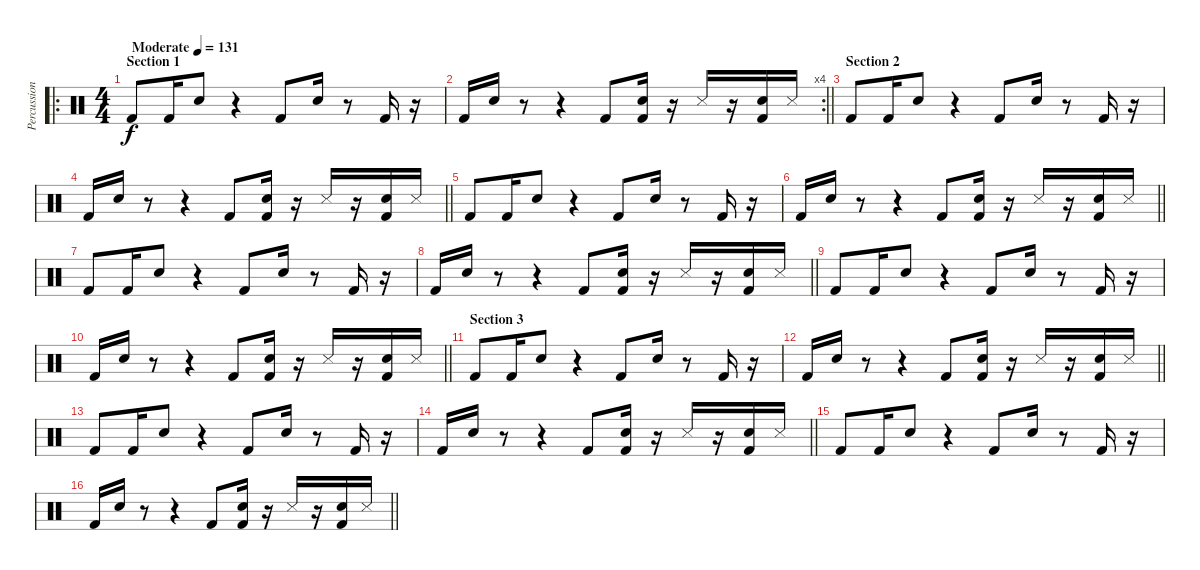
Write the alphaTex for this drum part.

\track ("Percussion" "Percussion") {instrument percussion}
\staff {score}
\articulation defaults
\ro
\ts (4 4)
\section ("" "Section 1")
\tempo (131 "Moderate")
\clef neutral
\ks c "Kick (hit) 2".8{dy f} "Kick (hit) 2".16 "Snare (hit) 2".8
r.4 "Kick (hit) 2".8 "Snare (hit) 2".16 r.8 "Kick (hit) 2".16 r.16 |
\rc 4
\barLineRight lightlight "Kick (hit) 2".16 "Snare (hit) 2".16
r.8 r.4 "Kick (hit) 2".8 ("Snare (hit) 2" "Kick (hit) 2").16 r.16 "Snare (side stick) 3".16 r.16 ("Snare (hit) 2" "Kick (hit) 2").16 "Snare (side stick) 3".16 |
\section ("" "Section 2")
"Kick (hit) 2".8 "Kick (hit) 2".16 "Snare (hit) 2".8 r.4 "Kick (hit) 2".8 "Snare (hit) 2".16 r.8 "Kick (hit) 2".16 r.16 |
\barLineRight lightlight "Kick (hit) 2".16 "Snare (hit) 2".16
r.8 r.4 "Kick (hit) 2".8 ("Snare (hit) 2" "Kick (hit) 2").16 r.16 "Snare (side stick) 3".16 r.16 ("Snare (hit) 2" "Kick (hit) 2").16 "Snare (side stick) 3".16 |
"Kick (hit) 2".8 "Kick (hit) 2".16 "Snare (hit) 2".8 r.4 "Kick (hit) 2".8 "Snare (hit) 2".16 r.8 "Kick (hit) 2".16 r.16 |
\barLineRight lightlight "Kick (hit) 2".16 "Snare (hit) 2".16
r.8 r.4 "Kick (hit) 2".8 ("Snare (hit) 2" "Kick (hit) 2").16 r.16 "Snare (side stick) 3".16 r.16 ("Snare (hit) 2" "Kick (hit) 2").16 "Snare (side stick) 3".16 |
"Kick (hit) 2".8 "Kick (hit) 2".16 "Snare (hit) 2".8 r.4 "Kick (hit) 2".8 "Snare (hit) 2".16 r.8 "Kick (hit) 2".16 r.16 |
\barLineRight lightlight "Kick (hit) 2".16 "Snare (hit) 2".16
r.8 r.4 "Kick (hit) 2".8 ("Snare (hit) 2" "Kick (hit) 2").16 r.16 "Snare (side stick) 3".16 r.16 ("Snare (hit) 2" "Kick (hit) 2").16 "Snare (side stick) 3".16 |
"Kick (hit) 2".8 "Kick (hit) 2".16 "Snare (hit) 2".8 r.4 "Kick (hit) 2".8 "Snare (hit) 2".16 r.8 "Kick (hit) 2".16 r.16 |
\barLineRight lightlight "Kick (hit) 2".16 "Snare (hit) 2".16
r.8 r.4 "Kick (hit) 2".8 ("Snare (hit) 2" "Kick (hit) 2").16 r.16 "Snare (side stick) 3".16 r.16 ("Snare (hit) 2" "Kick (hit) 2").16 "Snare (side stick) 3".16 |
\section ("" "Section 3")
"Kick (hit) 2".8 "Kick (hit) 2".16 "Snare (hit) 2".8 r.4 "Kick (hit) 2".8 "Snare (hit) 2".16 r.8 "Kick (hit) 2".16 r.16 |
\barLineRight lightlight "Kick (hit) 2".16 "Snare (hit) 2".16
r.8 r.4 "Kick (hit) 2".8 ("Snare (hit) 2" "Kick (hit) 2").16 r.16 "Snare (side stick) 3".16 r.16 ("Snare (hit) 2" "Kick (hit) 2").16 "Snare (side stick) 3".16 |
"Kick (hit) 2".8 "Kick (hit) 2".16 "Snare (hit) 2".8 r.4 "Kick (hit) 2".8 "Snare (hit) 2".16 r.8 "Kick (hit) 2".16 r.16 |
\barLineRight lightlight "Kick (hit) 2".16 "Snare (hit) 2".16
r.8 r.4 "Kick (hit) 2".8 ("Snare (hit) 2" "Kick (hit) 2").16 r.16 "Snare (side stick) 3".16 r.16 ("Snare (hit) 2" "Kick (hit) 2").16 "Snare (side stick) 3".16 |
"Kick (hit) 2".8 "Kick (hit) 2".16 "Snare (hit) 2".8 r.4 "Kick (hit) 2".8 "Snare (hit) 2".16 r.8 "Kick (hit) 2".16 r.16 |
\barLineRight lightlight "Kick (hit) 2".16 "Snare (hit) 2".16
r.8 r.4 "Kick (hit) 2".8 ("Snare (hit) 2" "Kick (hit) 2").16 r.16 "Snare (side stick) 3".16 r.16 ("Snare (hit) 2" "Kick (hit) 2").16 "Snare (side stick) 3".16
